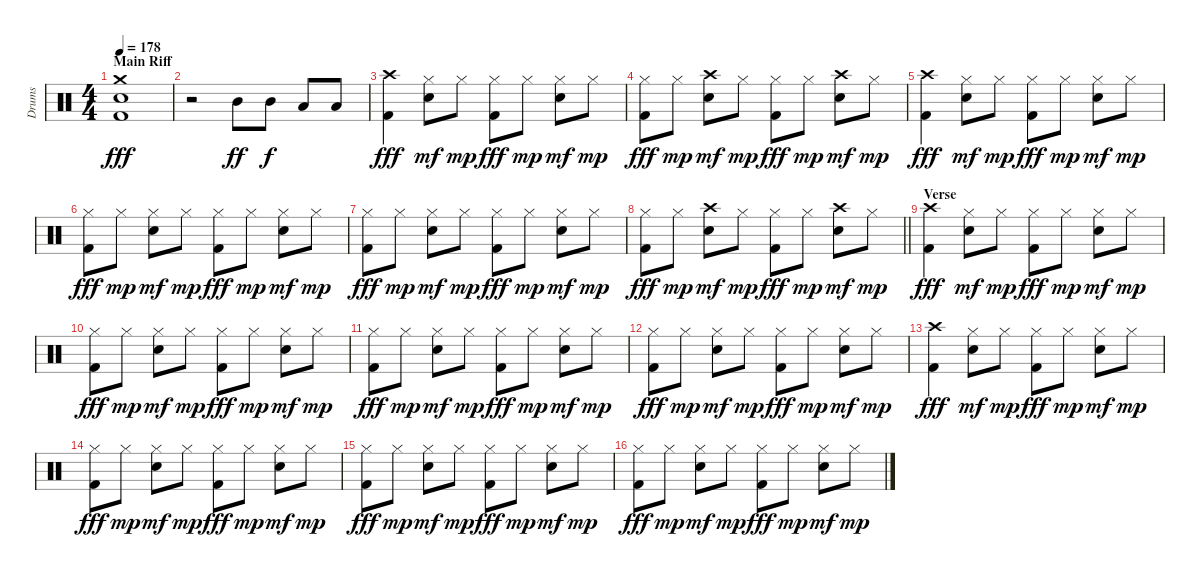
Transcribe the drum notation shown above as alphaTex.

\track ("Drums" "Drums") {instrument percussion}
\staff {score}
\articulation defaults
\ts (4 4)
\section ("" "Main Riff")
\tempo 178
\clef neutral
\ks c
("Crash medium (hit)" "Electric Snare (hit)" "Kick (hit) 2").1{dy fff} |
r.2 "Mid Tom (hit)".8{dy ff} "Mid Tom (hit)".8{dy f} "Low Tom (hit)".8 "Low Tom (hit)".8 |
("Crash high (hit)" "Kick (hit) 2").4{dy fff} ("Hi-Hat (closed)" "Electric Snare (hit)").8{dy mf} "Hi-Hat (closed)".8{dy mp} ("Hi-Hat (closed)" "Kick (hit) 2").8{dy fff} "Hi-Hat (closed)".8{dy mp} ("Hi-Hat (closed)" "Electric Snare (hit)").8{dy mf} "Hi-Hat (closed)".8{dy mp} |
("Hi-Hat (closed)" "Kick (hit) 2").8{dy fff} "Hi-Hat (closed)".8{dy mp} ("Crash high (hit)" "Electric Snare (hit)").8{dy mf} "Hi-Hat (closed)".8{dy mp} ("Hi-Hat (closed)" "Kick (hit) 2").8{dy fff} "Hi-Hat (closed)".8{dy mp} ("Crash high (hit)" "Electric Snare (hit)").8{dy mf} "Hi-Hat (closed)".8{dy mp} |
("Crash high (hit)" "Kick (hit) 2").4{dy fff} ("Hi-Hat (closed)" "Electric Snare (hit)").8{dy mf} "Hi-Hat (closed)".8{dy mp} ("Hi-Hat (closed)" "Kick (hit) 2").8{dy fff} "Hi-Hat (closed)".8{dy mp} ("Hi-Hat (closed)" "Electric Snare (hit)").8{dy mf} "Hi-Hat (closed)".8{dy mp} |
("Hi-Hat (closed)" "Kick (hit) 2").8{dy fff} "Hi-Hat (closed)".8{dy mp} ("Hi-Hat (closed)" "Electric Snare (hit)").8{dy mf} "Hi-Hat (closed)".8{dy mp} ("Hi-Hat (closed)" "Kick (hit) 2").8{dy fff} "Hi-Hat (closed)".8{dy mp} ("Hi-Hat (closed)" "Electric Snare (hit)").8{dy mf} "Hi-Hat (closed)".8{dy mp} |
("Hi-Hat (closed)" "Kick (hit) 2").8{dy fff} "Hi-Hat (closed)".8{dy mp} ("Hi-Hat (closed)" "Electric Snare (hit)").8{dy mf} "Hi-Hat (closed)".8{dy mp} ("Hi-Hat (closed)" "Kick (hit) 2").8{dy fff} "Hi-Hat (closed)".8{dy mp} ("Hi-Hat (closed)" "Electric Snare (hit)").8{dy mf} "Hi-Hat (closed)".8{dy mp} |
\barLineRight lightlight
("Hi-Hat (closed)" "Kick (hit) 2").8{dy fff} "Hi-Hat (closed)".8{dy mp} ("Crash high (hit)" "Electric Snare (hit)").8{dy mf} "Hi-Hat (closed)".8{dy mp} ("Hi-Hat (closed)" "Kick (hit) 2").8{dy fff} "Hi-Hat (closed)".8{dy mp} ("Crash high (hit)" "Electric Snare (hit)").8{dy mf} "Hi-Hat (closed)".8{dy mp} |
\section ("" "Verse")
("Crash high (hit)" "Kick (hit) 2").4{dy fff} ("Hi-Hat (closed)" "Electric Snare (hit)").8{dy mf} "Hi-Hat (closed)".8{dy mp} ("Hi-Hat (closed)" "Kick (hit) 2").8{dy fff} "Hi-Hat (closed)".8{dy mp} ("Hi-Hat (closed)" "Electric Snare (hit)").8{dy mf} "Hi-Hat (closed)".8{dy mp} |
("Hi-Hat (closed)" "Kick (hit) 2").8{dy fff} "Hi-Hat (closed)".8{dy mp} ("Hi-Hat (closed)" "Electric Snare (hit)").8{dy mf} "Hi-Hat (closed)".8{dy mp} ("Hi-Hat (closed)" "Kick (hit) 2").8{dy fff} "Hi-Hat (closed)".8{dy mp} ("Hi-Hat (closed)" "Electric Snare (hit)").8{dy mf} "Hi-Hat (closed)".8{dy mp} |
("Hi-Hat (closed)" "Kick (hit) 2").8{dy fff} "Hi-Hat (closed)".8{dy mp} ("Hi-Hat (closed)" "Electric Snare (hit)").8{dy mf} "Hi-Hat (closed)".8{dy mp} ("Hi-Hat (closed)" "Kick (hit) 2").8{dy fff} "Hi-Hat (closed)".8{dy mp} ("Hi-Hat (closed)" "Electric Snare (hit)").8{dy mf} "Hi-Hat (closed)".8{dy mp} |
("Hi-Hat (closed)" "Kick (hit) 2").8{dy fff} "Hi-Hat (closed)".8{dy mp} ("Hi-Hat (closed)" "Electric Snare (hit)").8{dy mf} "Hi-Hat (closed)".8{dy mp} ("Hi-Hat (closed)" "Kick (hit) 2").8{dy fff} "Hi-Hat (closed)".8{dy mp} ("Hi-Hat (closed)" "Electric Snare (hit)").8{dy mf} "Hi-Hat (closed)".8{dy mp} |
("Crash high (hit)" "Kick (hit) 2").4{dy fff} ("Hi-Hat (closed)" "Electric Snare (hit)").8{dy mf} "Hi-Hat (closed)".8{dy mp} ("Hi-Hat (closed)" "Kick (hit) 2").8{dy fff} "Hi-Hat (closed)".8{dy mp} ("Hi-Hat (closed)" "Electric Snare (hit)").8{dy mf} "Hi-Hat (closed)".8{dy mp} |
("Hi-Hat (closed)" "Kick (hit) 2").8{dy fff} "Hi-Hat (closed)".8{dy mp} ("Hi-Hat (closed)" "Electric Snare (hit)").8{dy mf} "Hi-Hat (closed)".8{dy mp} ("Hi-Hat (closed)" "Kick (hit) 2").8{dy fff} "Hi-Hat (closed)".8{dy mp} ("Hi-Hat (closed)" "Electric Snare (hit)").8{dy mf} "Hi-Hat (closed)".8{dy mp} |
("Hi-Hat (closed)" "Kick (hit) 2").8{dy fff} "Hi-Hat (closed)".8{dy mp} ("Hi-Hat (closed)" "Electric Snare (hit)").8{dy mf} "Hi-Hat (closed)".8{dy mp} ("Hi-Hat (closed)" "Kick (hit) 2").8{dy fff} "Hi-Hat (closed)".8{dy mp} ("Hi-Hat (closed)" "Electric Snare (hit)").8{dy mf} "Hi-Hat (closed)".8{dy mp} |
("Hi-Hat (closed)" "Kick (hit) 2").8{dy fff} "Hi-Hat (closed)".8{dy mp} ("Hi-Hat (closed)" "Electric Snare (hit)").8{dy mf} "Hi-Hat (closed)".8{dy mp} ("Hi-Hat (closed)" "Kick (hit) 2").8{dy fff} "Hi-Hat (closed)".8{dy mp} ("Hi-Hat (closed)" "Electric Snare (hit)").8{dy mf} "Hi-Hat (closed)".8{dy mp}
